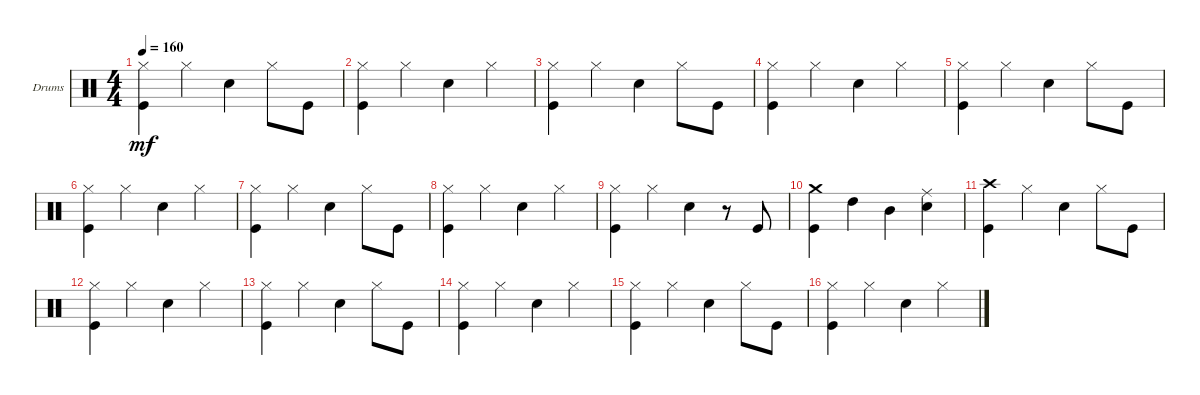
\defaultSystemsLayout 4
\bracketExtendMode groupsimilarinstruments
\firstSystemTrackNameOrientation horizontal
\otherSystemsTrackNameOrientation horizontal
\track ("Drumkit" "Drums") {instrument percussion}
\staff {score}
\articulation defaults
\ts (4 4)
\tempo 160
\clef neutral
\scale
0.333333
\ks c
("Kick (hit)" "Hi-Hat (closed)").4{dy mf} "Hi-Hat (closed)".4 "Snare (hit) 2".4 "Hi-Hat (closed)".8 "Kick (hit)".8 |
\scale
0.333333 ("Kick (hit)" "Hi-Hat (closed)").4 "Hi-Hat (closed)".4 "Snare (hit) 2".4 "Hi-Hat (closed)".4 |
\scale
0.333333 ("Kick (hit)" "Hi-Hat (closed)").4 "Hi-Hat (closed)".4 "Snare (hit) 2".4 "Hi-Hat (closed)".8 "Kick (hit)".8 |
\scale
0.333333 ("Kick (hit)" "Hi-Hat (closed)").4 "Hi-Hat (closed)".4 "Snare (hit) 2".4 "Hi-Hat (closed)".4 |
\scale
0.333333 ("Kick (hit)" "Hi-Hat (closed)").4 "Hi-Hat (closed)".4 "Snare (hit) 2".4 "Hi-Hat (closed)".8 "Kick (hit)".8 |
\scale
0.333333 ("Kick (hit)" "Hi-Hat (closed)").4 "Hi-Hat (closed)".4 "Snare (hit) 2".4 "Hi-Hat (closed)".4 |
\scale
0.333333 ("Kick (hit)" "Hi-Hat (closed)").4 "Hi-Hat (closed)".4 "Snare (hit) 2".4 "Hi-Hat (closed)".8 "Kick (hit)".8 |
\scale
0.333333 ("Kick (hit)" "Hi-Hat (closed)").4 "Hi-Hat (closed)".4 "Snare (hit) 2".4 "Hi-Hat (closed)".4 |
\scale
0.333333 ("Kick (hit)" "Hi-Hat (closed)").4 "Hi-Hat (closed)".4 "Snare (hit) 2".4 r.8 "Kick (hit)".8 |
\scale
0.333333 ("Kick (hit)" "Crash medium (hit)").4 "High Tom (hit)".4 "Mid Tom (hit)".4 ("Snare (hit) 2" "Ride (middle)").4 |
\scale
0.333333 ("Kick (hit)" "Crash high (hit)").4 "Hi-Hat (closed)".4 "Snare (hit) 2".4 "Hi-Hat (closed)".8 "Kick (hit)".8 |
\scale
0.333333 ("Kick (hit)" "Hi-Hat (closed)").4 "Hi-Hat (closed)".4 "Snare (hit) 2".4 "Hi-Hat (closed)".4 |
\scale
0.333333 ("Kick (hit)" "Hi-Hat (closed)").4 "Hi-Hat (closed)".4 "Snare (hit) 2".4 "Hi-Hat (closed)".8 "Kick (hit)".8 |
\scale
0.333333 ("Kick (hit)" "Hi-Hat (closed)").4 "Hi-Hat (closed)".4 "Snare (hit) 2".4 "Hi-Hat (closed)".4 |
\scale
0.333333 ("Kick (hit)" "Hi-Hat (closed)").4 "Hi-Hat (closed)".4 "Snare (hit) 2".4 "Hi-Hat (closed)".8 "Kick (hit)".8 |
\scale
0.333333 ("Kick (hit)" "Hi-Hat (closed)").4 "Hi-Hat (closed)".4 "Snare (hit) 2".4 "Hi-Hat (closed)".4
